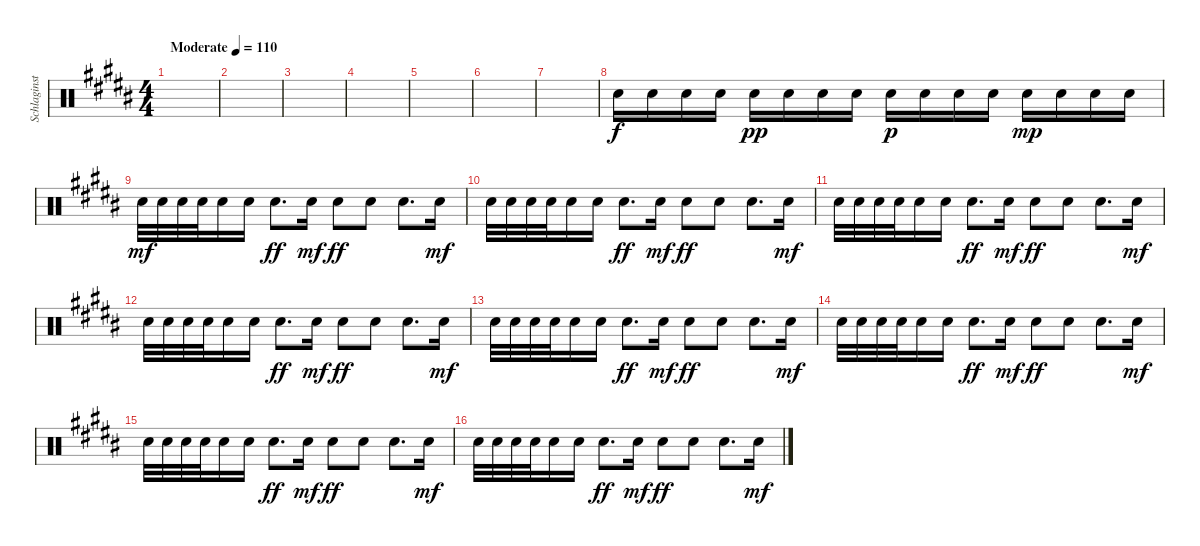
\track ("Schlaginstrumente - Auswahl" "Schlaginst") {instrument percussion}
\staff {score}
\articulation defaults
\ts (4 4)
\tempo (110 "Moderate")
\clef neutral
\ks b
|
|
|
|
|
|
|
"Snare (hit) 2".16 "Snare (hit) 2".16 "Snare (hit) 2".16 "Snare (hit) 2".16 "Snare (hit) 2".16{dy pp} "Snare (hit) 2".16 "Snare (hit) 2".16 "Snare (hit) 2".16 "Snare (hit) 2".16{dy p} "Snare (hit) 2".16 "Snare (hit) 2".16 "Snare (hit) 2".16 "Snare (hit) 2".16{dy mp} "Snare (hit) 2".16 "Snare (hit) 2".16 "Snare (hit) 2".16 |
"Snare (hit) 2".32{dy mf} "Snare (hit) 2".32 "Snare (hit) 2".32 "Snare (hit) 2".32 "Snare (hit) 2".16 "Snare (hit) 2".16 "Electric Snare (hit)".8{d dy ff} "Snare (hit) 2".16{dy mf} "Electric Snare (hit)".8{dy ff} "Electric Snare (hit)".8 "Electric Snare (hit)".8{d} "Snare (hit) 2".16{dy mf} |
"Snare (hit) 2".32 "Snare (hit) 2".32 "Snare (hit) 2".32 "Snare (hit) 2".32 "Snare (hit) 2".16 "Snare (hit) 2".16 "Electric Snare (hit)".8{d dy ff} "Snare (hit) 2".16{dy mf} "Electric Snare (hit)".8{dy ff} "Electric Snare (hit)".8 "Electric Snare (hit)".8{d} "Snare (hit) 2".16{dy mf} |
"Snare (hit) 2".32 "Snare (hit) 2".32 "Snare (hit) 2".32 "Snare (hit) 2".32 "Snare (hit) 2".16 "Snare (hit) 2".16 "Electric Snare (hit)".8{d dy ff} "Snare (hit) 2".16{dy mf} "Electric Snare (hit)".8{dy ff} "Electric Snare (hit)".8 "Electric Snare (hit)".8{d} "Snare (hit) 2".16{dy mf} |
"Snare (hit) 2".32 "Snare (hit) 2".32 "Snare (hit) 2".32 "Snare (hit) 2".32 "Snare (hit) 2".16 "Snare (hit) 2".16 "Electric Snare (hit)".8{d dy ff} "Snare (hit) 2".16{dy mf} "Electric Snare (hit)".8{dy ff} "Electric Snare (hit)".8 "Electric Snare (hit)".8{d} "Snare (hit) 2".16{dy mf} |
"Snare (hit) 2".32 "Snare (hit) 2".32 "Snare (hit) 2".32 "Snare (hit) 2".32 "Snare (hit) 2".16 "Snare (hit) 2".16 "Electric Snare (hit)".8{d dy ff} "Snare (hit) 2".16{dy mf} "Electric Snare (hit)".8{dy ff} "Electric Snare (hit)".8 "Electric Snare (hit)".8{d} "Snare (hit) 2".16{dy mf} |
"Snare (hit) 2".32 "Snare (hit) 2".32 "Snare (hit) 2".32 "Snare (hit) 2".32 "Snare (hit) 2".16 "Snare (hit) 2".16 "Electric Snare (hit)".8{d dy ff} "Snare (hit) 2".16{dy mf} "Electric Snare (hit)".8{dy ff} "Electric Snare (hit)".8 "Electric Snare (hit)".8{d} "Snare (hit) 2".16{dy mf} |
"Snare (hit) 2".32 "Snare (hit) 2".32 "Snare (hit) 2".32 "Snare (hit) 2".32 "Snare (hit) 2".16 "Snare (hit) 2".16 "Electric Snare (hit)".8{d dy ff} "Snare (hit) 2".16{dy mf} "Electric Snare (hit)".8{dy ff} "Electric Snare (hit)".8 "Electric Snare (hit)".8{d} "Snare (hit) 2".16{dy mf} |
"Snare (hit) 2".32 "Snare (hit) 2".32 "Snare (hit) 2".32 "Snare (hit) 2".32 "Snare (hit) 2".16 "Snare (hit) 2".16 "Electric Snare (hit)".8{d dy ff} "Snare (hit) 2".16{dy mf} "Electric Snare (hit)".8{dy ff} "Electric Snare (hit)".8 "Electric Snare (hit)".8{d} "Snare (hit) 2".16{dy mf}
